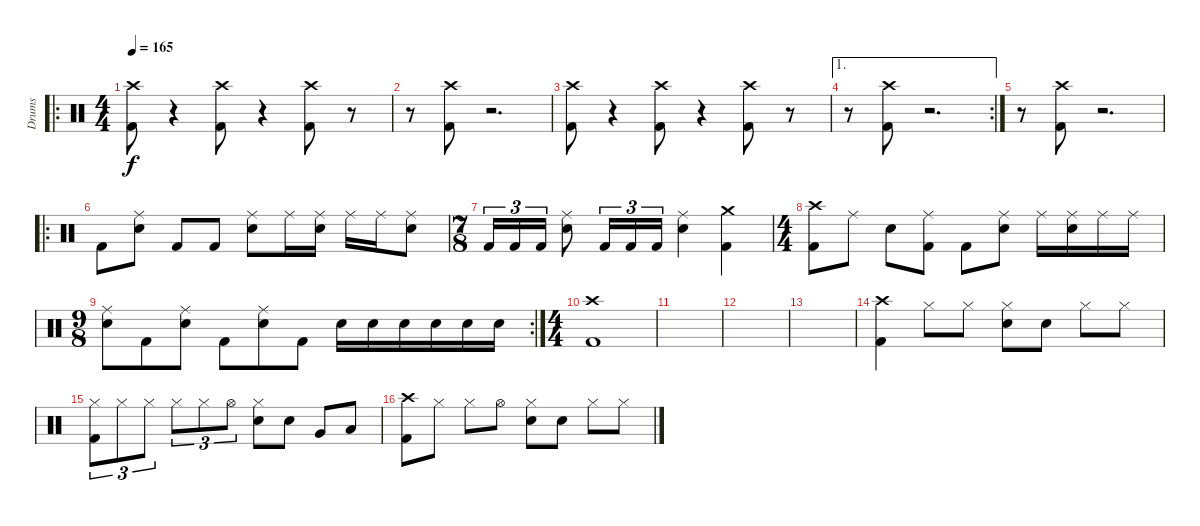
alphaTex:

\track ("Drums" "Drums") {instrument percussion}
\staff {score}
\articulation defaults
\ro
\ts (4 4)
\tempo 165
\clef neutral
\ks c
("Crash high (hit)" "Kick (hit) 2").8{dy f volume 13} r.4{volume 0} ("Crash high (hit)" "Kick (hit) 2").8{volume 13} r.4{volume 0} ("Crash high (hit)" "Kick (hit) 2").8{volume 13} r.8{volume 0} |
r.8{volume 0} ("Crash high (hit)" "Kick (hit) 2").8{volume 13} r.2{d volume 0} |
("Crash high (hit)" "Kick (hit) 2").8{volume 13} r.4{volume 0} ("Crash high (hit)" "Kick (hit) 2").8{volume 13} r.4{volume 0} ("Crash high (hit)" "Kick (hit) 2").8{volume 13} r.8{volume 0} |
\ae 1
\rc 2
r.8{volume 0} ("Crash high (hit)" "Kick (hit) 2").8{volume 13} r.2{d volume 0} |
r.8{volume 0} ("Crash high (hit)" "Kick (hit) 2").8{volume 13} r.2{d volume 0} |
\ro "Kick (hit) 2".8{volume 13}
("Ride (middle)" "Electric Snare (hit)").8 "Kick (hit) 2".8 "Kick (hit) 2".8 ("Ride (middle)" "Electric Snare (hit)").8 "Ride (middle)".16 ("Ride (middle)" "Electric Snare (hit)").16 "Ride (middle)".16 "Ride (middle)".16 ("Ride (middle)" "Electric Snare (hit)").8 |
\ts (7 8)
"Kick (hit) 2".16{tu (3 2)} "Kick (hit) 2".16{tu (3 2)} "Kick (hit) 2".16{tu (3 2)} ("Ride (middle)" "Electric Snare (hit)").8 "Kick (hit) 2".16{tu (3 2)} "Kick (hit) 2".16{tu (3 2)} "Kick (hit) 2".16{tu (3 2)} ("Ride (middle)" "Electric Snare (hit)").4 ("Crash medium (hit)" "Kick (hit) 2").4 |
\ts (4 4)
("Crash high (hit)" "Kick (hit) 2").8 "Ride (middle)".8 "Electric Snare (hit)".8 ("Ride (middle)" "Kick (hit) 2").8 "Kick (hit) 2".8 ("Ride (middle)" "Electric Snare (hit)").8 "Ride (middle)".16 ("Ride (middle)" "Electric Snare (hit)").16 "Ride (middle)".16 "Ride (middle)".16 |
\rc 2
\ts (9 8)
("Ride (middle)" "Electric Snare (hit)").8 "Kick (hit) 2".8 ("Ride (middle)" "Electric Snare (hit)").8 "Kick (hit) 2".8 ("Ride (middle)" "Electric Snare (hit)").8 "Kick (hit) 2".8 "Electric Snare (hit)".16 "Electric Snare (hit)".16 "Electric Snare (hit)".16 "Electric Snare (hit)".16 "Electric Snare (hit)".16 "Electric Snare (hit)".16 |
\ts (4 4)
("Crash high (hit)" "Kick (hit) 2").1 |
|
|
|
("Crash high (hit)" "Kick (hit) 2").4 "Hi-Hat (closed)".8 "Hi-Hat (closed)".8 ("Hi-Hat (closed)" "Electric Snare (hit)").8 "Electric Snare (hit)".8 "Hi-Hat (closed)".8 "Hi-Hat (closed)".8 |
("Hi-Hat (closed)" "Kick (hit) 2").8{tu (3 2)} "Hi-Hat (closed)".8{tu (3 2)} "Hi-Hat (closed)".8{tu (3 2)} "Hi-Hat (closed)".8{tu (3 2)} "Hi-Hat (closed)".8{tu (3 2)} "Hi-Hat (open)".8{tu (3 2)} ("Hi-Hat (closed)" "Electric Snare (hit)").8 "Electric Snare (hit)".8 "Very Low Tom (hit)".8 "Low Floor Tom (hit)".8 |
("Crash high (hit)" "Kick (hit) 2").8 "Hi-Hat (closed)".8 "Hi-Hat (closed)".8 "Hi-Hat (open)".8 ("Hi-Hat (closed)" "Electric Snare (hit)").8 "Electric Snare (hit)".8 "Hi-Hat (closed)".8 "Hi-Hat (closed)".8
